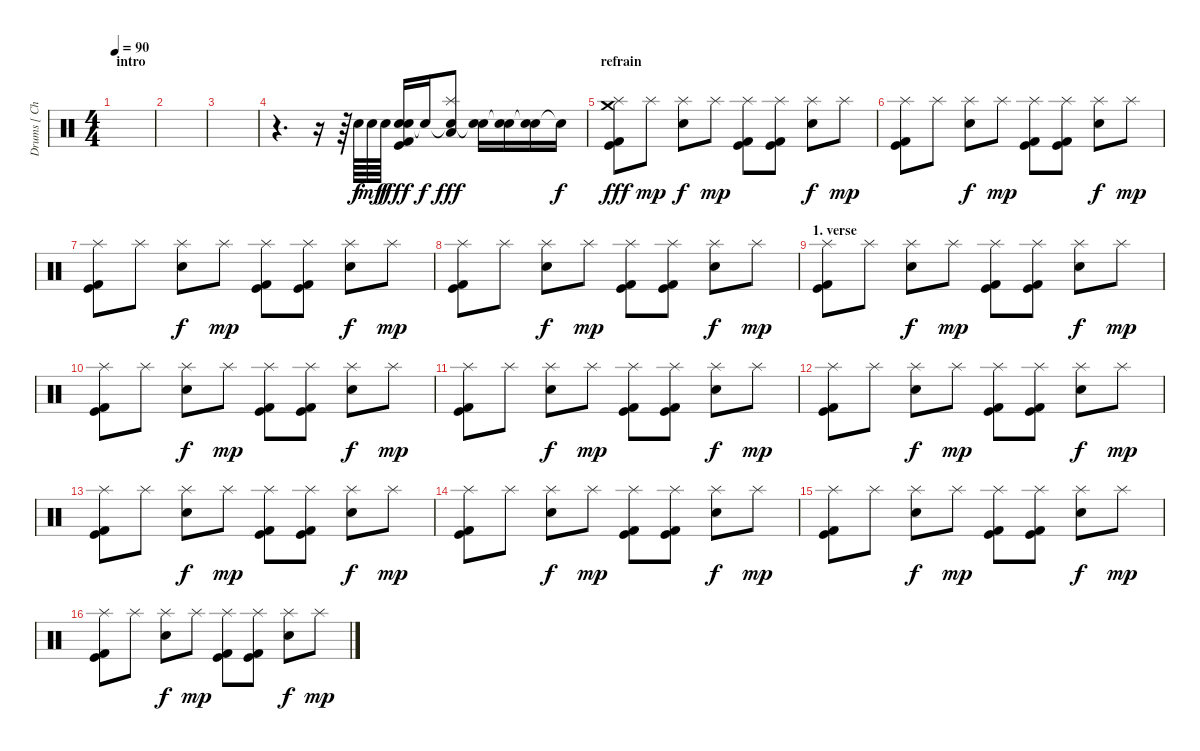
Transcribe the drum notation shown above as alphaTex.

\track ("Drums [ Christoph Schneider ]" "Drums [ Ch") {instrument percussion}
\staff {score}
\articulation defaults
\ts (4 4)
\section ("" "intro")
\tempo 90
\clef neutral
\ks c
|
|
|
r.4{d} r.16 r.64 "Snare (hit) 2".64 "Snare (hit) 2".64{dy mf} "Snare (hit) 2".64{dy f} ("Snare (hit) 2"{tr (38 32)} "Electric Snare (hit)" "Kick (hit) 2" "Kick (hit)").16{dy fff} "Snare (hit)"{t}.16{dy f} ("Snare (hit) 2"{t} "Splash (hit)" "Low Floor Tom (hit)").8{dy fff} ("Snare (hit)"{t} "Electric Snare (hit)").16 ("Snare (hit)"{t} "Electric Snare (hit)").16 ("Snare (hit)"{t} "Snare (hit) 2").16 "Snare (hit)"{t}.16{dy f} |
\section ("" "refrain")
("Splash (hit)" "Kick (hit)" "Kick (hit) 2" "Crash medium (hit)").8{dy fff} "Splash (hit)".8{dy mp} ("Splash (hit)" "Snare (hit) 2").8{dy f} "Splash (hit)".8{dy mp} ("Splash (hit)" "Kick (hit)" "Kick (hit) 2").8 ("Splash (hit)" "Kick (hit)" "Kick (hit) 2").8 ("Splash (hit)" "Snare (hit) 2").8{dy f} "Splash (hit)".8{dy mp} |
("Splash (hit)" "Kick (hit)" "Kick (hit) 2").8 "Splash (hit)".8 ("Splash (hit)" "Snare (hit) 2").8{dy f} "Splash (hit)".8{dy mp} ("Splash (hit)" "Kick (hit)" "Kick (hit) 2").8 ("Splash (hit)" "Kick (hit)" "Kick (hit) 2").8 ("Splash (hit)" "Snare (hit) 2").8{dy f} "Splash (hit)".8{dy mp} |
("Splash (hit)" "Kick (hit)" "Kick (hit) 2").8 "Splash (hit)".8 ("Splash (hit)" "Snare (hit) 2").8{dy f} "Splash (hit)".8{dy mp} ("Splash (hit)" "Kick (hit)" "Kick (hit) 2").8 ("Splash (hit)" "Kick (hit)" "Kick (hit) 2").8 ("Splash (hit)" "Snare (hit) 2").8{dy f} "Splash (hit)".8{dy mp} |
("Splash (hit)" "Kick (hit)" "Kick (hit) 2").8 "Splash (hit)".8 ("Splash (hit)" "Snare (hit) 2").8{dy f} "Splash (hit)".8{dy mp} ("Splash (hit)" "Kick (hit)" "Kick (hit) 2").8 ("Splash (hit)" "Kick (hit)" "Kick (hit) 2").8 ("Splash (hit)" "Snare (hit) 2").8{dy f} "Splash (hit)".8{dy mp} |
\section ("" "1. verse")
("Splash (hit)" "Kick (hit)" "Kick (hit) 2").8 "Splash (hit)".8 ("Splash (hit)" "Snare (hit) 2").8{dy f} "Splash (hit)".8{dy mp} ("Splash (hit)" "Kick (hit)" "Kick (hit) 2").8 ("Splash (hit)" "Kick (hit)" "Kick (hit) 2").8 ("Splash (hit)" "Snare (hit) 2").8{dy f} "Splash (hit)".8{dy mp} |
("Splash (hit)" "Kick (hit)" "Kick (hit) 2").8 "Splash (hit)".8 ("Splash (hit)" "Snare (hit) 2").8{dy f} "Splash (hit)".8{dy mp} ("Splash (hit)" "Kick (hit)" "Kick (hit) 2").8 ("Splash (hit)" "Kick (hit)" "Kick (hit) 2").8 ("Splash (hit)" "Snare (hit) 2").8{dy f} "Splash (hit)".8{dy mp} |
("Splash (hit)" "Kick (hit)" "Kick (hit) 2").8 "Splash (hit)".8 ("Splash (hit)" "Snare (hit) 2").8{dy f} "Splash (hit)".8{dy mp} ("Splash (hit)" "Kick (hit)" "Kick (hit) 2").8 ("Splash (hit)" "Kick (hit)" "Kick (hit) 2").8 ("Splash (hit)" "Snare (hit) 2").8{dy f} "Splash (hit)".8{dy mp} |
("Splash (hit)" "Kick (hit)" "Kick (hit) 2").8 "Splash (hit)".8 ("Splash (hit)" "Snare (hit) 2").8{dy f} "Splash (hit)".8{dy mp} ("Splash (hit)" "Kick (hit)" "Kick (hit) 2").8 ("Splash (hit)" "Kick (hit)" "Kick (hit) 2").8 ("Splash (hit)" "Snare (hit) 2").8{dy f} "Splash (hit)".8{dy mp} |
("Splash (hit)" "Kick (hit)" "Kick (hit) 2").8 "Splash (hit)".8 ("Splash (hit)" "Snare (hit) 2").8{dy f} "Splash (hit)".8{dy mp} ("Splash (hit)" "Kick (hit)" "Kick (hit) 2").8 ("Splash (hit)" "Kick (hit)" "Kick (hit) 2").8 ("Splash (hit)" "Snare (hit) 2").8{dy f} "Splash (hit)".8{dy mp} |
("Splash (hit)" "Kick (hit)" "Kick (hit) 2").8 "Splash (hit)".8 ("Splash (hit)" "Snare (hit) 2").8{dy f} "Splash (hit)".8{dy mp} ("Splash (hit)" "Kick (hit)" "Kick (hit) 2").8 ("Splash (hit)" "Kick (hit)" "Kick (hit) 2").8 ("Splash (hit)" "Snare (hit) 2").8{dy f} "Splash (hit)".8{dy mp} |
("Splash (hit)" "Kick (hit)" "Kick (hit) 2").8 "Splash (hit)".8 ("Splash (hit)" "Snare (hit) 2").8{dy f} "Splash (hit)".8{dy mp} ("Splash (hit)" "Kick (hit)" "Kick (hit) 2").8 ("Splash (hit)" "Kick (hit)" "Kick (hit) 2").8 ("Splash (hit)" "Snare (hit) 2").8{dy f} "Splash (hit)".8{dy mp} |
("Splash (hit)" "Kick (hit)" "Kick (hit) 2").8 "Splash (hit)".8 ("Splash (hit)" "Snare (hit) 2").8{dy f} "Splash (hit)".8{dy mp} ("Splash (hit)" "Kick (hit)" "Kick (hit) 2").8 ("Splash (hit)" "Kick (hit)" "Kick (hit) 2").8 ("Splash (hit)" "Snare (hit) 2").8{dy f} "Splash (hit)".8{dy mp}
